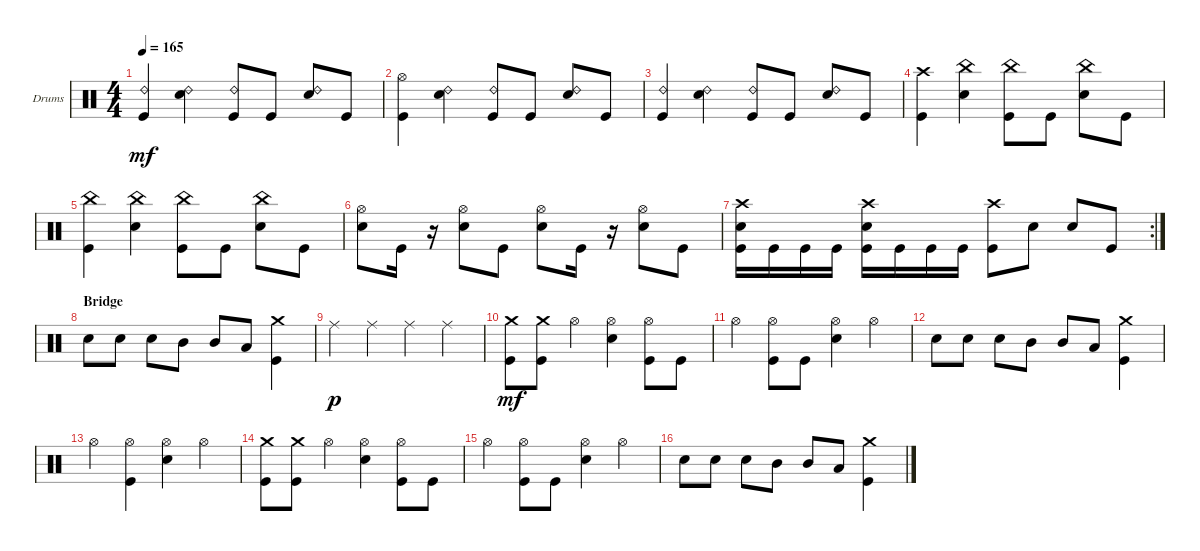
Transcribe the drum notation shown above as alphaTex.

\bracketExtendMode groupsimilarinstruments
\firstSystemTrackNameOrientation horizontal
\otherSystemsTrackNameOrientation horizontal
\track ("Drums" "Drums") {solo instrument percussion}
\staff {score}
\articulation defaults
\ts (4 4)
\tempo 165
\clef neutral
\ks c
("Kick (hit)" "Ride (bell) 2").4{dy mf} ("Snare (hit) 2" "Ride (bell) 2").4 ("Kick (hit)" "Ride (bell) 2").8 "Kick (hit)".8 ("Snare (hit) 2" "Ride (bell) 2").8 "Kick (hit)".8 |
("Kick (hit)" "Hi-Hat (open)").4 ("Snare (hit) 2" "Ride (bell) 2").4 ("Kick (hit)" "Ride (bell) 2").8 "Kick (hit)".8 ("Snare (hit) 2" "Ride (bell) 2").8 "Kick (hit)".8 |
("Kick (hit)" "Ride (bell) 2").4 ("Snare (hit) 2" "Ride (bell) 2").4 ("Kick (hit)" "Ride (bell) 2").8 "Kick (hit)".8 ("Snare (hit) 2" "Ride (bell) 2").8 "Kick (hit)".8 |
("Kick (hit)" "Crash high (hit)").4 ("Snare (hit) 2" "China (hit)").4 ("Kick (hit)" "China (hit)").8 "Kick (hit)".8 ("Snare (hit) 2" "China (hit)").8 "Kick (hit)".8 |
("Kick (hit)" "China (hit)").4 ("Snare (hit) 2" "China (hit)").4 ("Kick (hit)" "China (hit)").8 "Kick (hit)".8 ("Snare (hit) 2" "China (hit)").8 "Kick (hit)".8 |
("Snare (hit) 2" "Hi-Hat (open)").8 "Kick (hit)".16 r.16 ("Snare (hit) 2" "Hi-Hat (open)").8 "Kick (hit)".8 ("Snare (hit) 2" "Hi-Hat (open)").8 "Kick (hit)".16 r.16 ("Snare (hit) 2" "Hi-Hat (open)").8 "Kick (hit)".8 |
\rc 2
("Kick (hit)" "Snare (hit) 2" "Crash high (hit)").16 "Kick (hit)".16 "Kick (hit)".16 "Kick (hit)".16 ("Kick (hit)" "Snare (hit) 2" "Crash high (hit)").16 "Kick (hit)".16 "Kick (hit)".16 "Kick (hit)".16 ("Crash high (hit)" "Kick (hit)").8 "Snare (hit) 2".8 "Snare (hit) 2".8 "Kick (hit)".8 |
\section ("" "Bridge")
"Snare (hit) 2".8 "Snare (hit) 2".8 "Snare (hit) 2".8 "Mid Tom (hit)".8 "Mid Tom (hit)".8 "Low Tom (hit)".8 ("Kick (hit)" "Crash medium (hit)").4 |
"Ride (middle)".4{dy p} "Ride (middle)".4 "Ride (middle)".4 "Ride (middle)".4 |
("Kick (hit)" "Crash medium (hit)").8{dy mf} ("Kick (hit)" "Crash medium (hit)").8 "Hi-Hat (open)".4 ("Snare (hit) 2" "Hi-Hat (open)").4 ("Kick (hit)" "Hi-Hat (open)").8 "Kick (hit)".8 |
"Hi-Hat (open)".4 ("Kick (hit)" "Hi-Hat (open)").8 "Kick (hit)".8 ("Snare (hit) 2" "Hi-Hat (open)").4 "Hi-Hat (open)".4 |
"Snare (hit) 2".8 "Snare (hit) 2".8 "Snare (hit) 2".8 "Mid Tom (hit)".8 "Mid Tom (hit)".8 "Low Tom (hit)".8 ("Kick (hit)" "Crash medium (hit)").4 |
"Hi-Hat (open)".4 ("Kick (hit)" "Hi-Hat (open)").4 ("Snare (hit) 2" "Hi-Hat (open)").4 "Hi-Hat (open)".4 |
("Kick (hit)" "Crash medium (hit)").8 ("Kick (hit)" "Crash medium (hit)").8 "Hi-Hat (open)".4 ("Snare (hit) 2" "Hi-Hat (open)").4 ("Kick (hit)" "Hi-Hat (open)").8 "Kick (hit)".8 |
"Hi-Hat (open)".4 ("Kick (hit)" "Hi-Hat (open)").8 "Kick (hit)".8 ("Snare (hit) 2" "Hi-Hat (open)").4 "Hi-Hat (open)".4 |
"Snare (hit) 2".8 "Snare (hit) 2".8 "Snare (hit) 2".8 "Mid Tom (hit)".8 "Mid Tom (hit)".8 "Low Tom (hit)".8 ("Kick (hit)" "Crash medium (hit)").4
